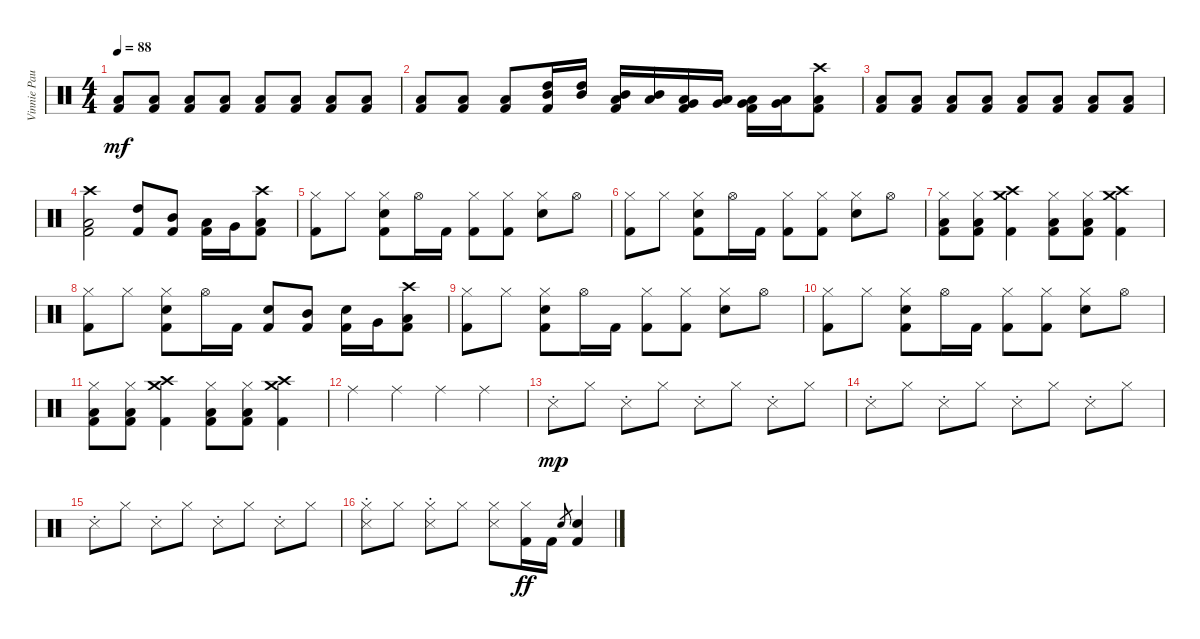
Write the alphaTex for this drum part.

\track ("Vinnie Paul" "Vinnie Pau") {instrument percussion}
\staff {score}
\articulation defaults
\ts (4 4)
\tempo 88
\clef neutral
\ks c
("Low Floor Tom (hit)" "Kick (hit) 2").8{dy mf} ("Low Floor Tom (hit)" "Kick (hit) 2").8 ("Low Floor Tom (hit)" "Kick (hit) 2").8 ("Low Floor Tom (hit)" "Kick (hit) 2").8 ("Low Floor Tom (hit)" "Kick (hit) 2").8 ("Low Floor Tom (hit)" "Kick (hit) 2").8 ("Low Floor Tom (hit)" "Kick (hit) 2").8 ("Low Floor Tom (hit)" "Kick (hit) 2").8 |
("Low Floor Tom (hit)" "Kick (hit) 2").8 ("Low Floor Tom (hit)" "Kick (hit) 2").8 ("Low Floor Tom (hit)" "Kick (hit) 2").8 ("High Tom (hit)" "Mid Tom (hit)" "Kick (hit) 2").16 ("High Tom (hit)" "Mid Tom (hit)").16 ("Mid Tom (hit)" "Low Tom (hit)" "Kick (hit) 2").16 ("Mid Tom (hit)" "Low Tom (hit)").16 ("Low Tom (hit)" "Very Low Tom (hit)" "Kick (hit) 2").16 ("Low Tom (hit)" "Very Low Tom (hit)").16 ("Very Low Tom (hit)" "Low Floor Tom (hit)" "Kick (hit) 2").16 ("Very Low Tom (hit)" "Low Floor Tom (hit)").16 ("Crash high (hit)" "Low Floor Tom (hit)" "Kick (hit) 2").8 |
("Low Floor Tom (hit)" "Kick (hit) 2").8 ("Low Floor Tom (hit)" "Kick (hit) 2").8 ("Low Floor Tom (hit)" "Kick (hit) 2").8 ("Low Floor Tom (hit)" "Kick (hit) 2").8 ("Low Floor Tom (hit)" "Kick (hit) 2").8 ("Low Floor Tom (hit)" "Kick (hit) 2").8 ("Low Floor Tom (hit)" "Kick (hit) 2").8 ("Low Floor Tom (hit)" "Kick (hit) 2").8 |
("Crash high (hit)" "Low Floor Tom (hit)" "Kick (hit) 2").2 ("High Tom (hit)" "Kick (hit) 2").8 ("Mid Tom (hit)" "Kick (hit) 2").8 ("Low Tom (hit)" "Kick (hit) 2").16 "Very Low Tom (hit)".16 ("Crash high (hit)" "Low Floor Tom (hit)" "Kick (hit) 2").8 |
("Hi-Hat (closed)" "Kick (hit) 2").8 "Hi-Hat (closed)".8 ("Hi-Hat (closed)" "Electric Snare (hit)" "Kick (hit) 2").8 "Hi-Hat (open)".16 "Kick (hit) 2".16 ("Hi-Hat (closed)" "Kick (hit) 2").8 ("Hi-Hat (closed)" "Kick (hit) 2").8 ("Hi-Hat (closed)" "Electric Snare (hit)").8 "Hi-Hat (open)".8 |
("Hi-Hat (closed)" "Kick (hit) 2").8 "Hi-Hat (closed)".8 ("Hi-Hat (closed)" "Electric Snare (hit)" "Kick (hit) 2").8 "Hi-Hat (open)".16 "Kick (hit) 2".16 ("Hi-Hat (closed)" "Kick (hit) 2").8 ("Hi-Hat (closed)" "Kick (hit) 2").8 ("Hi-Hat (closed)" "Electric Snare (hit)").8 "Hi-Hat (open)".8 |
("Hi-Hat (closed)" "Low Floor Tom (hit)" "Kick (hit) 2").8 ("Hi-Hat (closed)" "Low Floor Tom (hit)" "Kick (hit) 2").8 ("Crash high (hit)" "Crash medium (hit)" "Kick (hit) 2").4 ("Hi-Hat (closed)" "Low Floor Tom (hit)" "Kick (hit) 2").8 ("Hi-Hat (closed)" "Low Floor Tom (hit)" "Kick (hit) 2").8 ("Crash high (hit)" "Crash medium (hit)" "Kick (hit) 2").4 |
("Hi-Hat (closed)" "Kick (hit) 2").8 "Hi-Hat (closed)".8 ("Hi-Hat (closed)" "Electric Snare (hit)" "Kick (hit) 2").8 "Hi-Hat (open)".16 "Kick (hit) 2".16 ("Electric Snare (hit)" "Kick (hit) 2").8 ("Mid Tom (hit)" "Kick (hit) 2").8 ("Electric Snare (hit)" "Kick (hit) 2").16 "Very Low Tom (hit)".16 ("Crash high (hit)" "Low Floor Tom (hit)" "Kick (hit) 2").8 |
("Hi-Hat (closed)" "Kick (hit) 2").8 "Hi-Hat (closed)".8 ("Hi-Hat (closed)" "Electric Snare (hit)" "Kick (hit) 2").8 "Hi-Hat (open)".16 "Kick (hit) 2".16 ("Hi-Hat (closed)" "Kick (hit) 2").8 ("Hi-Hat (closed)" "Kick (hit) 2").8 ("Hi-Hat (closed)" "Electric Snare (hit)").8 "Hi-Hat (open)".8 |
("Hi-Hat (closed)" "Kick (hit) 2").8 "Hi-Hat (closed)".8 ("Hi-Hat (closed)" "Electric Snare (hit)" "Kick (hit) 2").8 "Hi-Hat (open)".16 "Kick (hit) 2".16 ("Hi-Hat (closed)" "Kick (hit) 2").8 ("Hi-Hat (closed)" "Kick (hit) 2").8 ("Hi-Hat (closed)" "Electric Snare (hit)").8 "Hi-Hat (open)".8 |
("Hi-Hat (closed)" "Low Floor Tom (hit)" "Kick (hit) 2").8 ("Hi-Hat (closed)" "Low Floor Tom (hit)" "Kick (hit) 2").8 ("Crash high (hit)" "Crash medium (hit)" "Kick (hit) 2").4 ("Hi-Hat (closed)" "Low Floor Tom (hit)" "Kick (hit) 2").8 ("Hi-Hat (closed)" "Low Floor Tom (hit)" "Kick (hit) 2").8 ("Crash high (hit)" "Crash medium (hit)" "Kick (hit) 2").4 |
"Ride (middle)".4 "Ride (middle)".4 "Ride (middle)".4 "Ride (middle)".4 |
"Snare (side stick) 3"{st}.8{dy mp} "Hi-Hat (closed)".8 "Snare (side stick) 3"{st}.8 "Hi-Hat (closed)".8 "Snare (side stick) 3"{st}.8 "Hi-Hat (closed)".8 "Snare (side stick) 3"{st}.8 "Hi-Hat (closed)".8 |
"Snare (side stick) 3"{st}.8 "Hi-Hat (closed)".8 "Snare (side stick) 3"{st}.8 "Hi-Hat (closed)".8 "Snare (side stick) 3"{st}.8 "Hi-Hat (closed)".8 "Snare (side stick) 3"{st}.8 "Hi-Hat (closed)".8 |
"Snare (side stick) 3"{st}.8 "Hi-Hat (closed)".8 "Snare (side stick) 3"{st}.8 "Hi-Hat (closed)".8 "Snare (side stick) 3"{st}.8 "Hi-Hat (closed)".8 "Snare (side stick) 3"{st}.8 "Hi-Hat (closed)".8 |
("Snare (side stick) 3"{st} "Hi-Hat (closed)").8 "Hi-Hat (closed)".8 ("Snare (side stick) 3"{st} "Hi-Hat (closed)").8 "Hi-Hat (closed)".8 ("Snare (side stick) 3" "Hi-Hat (closed)").8 ("Hi-Hat (closed)" "Kick (hit) 2").16{dy ff} "Kick (hit) 2".16 "Electric Snare (hit)".8{gr} ("Electric Snare (hit)" "Kick (hit) 2").4
